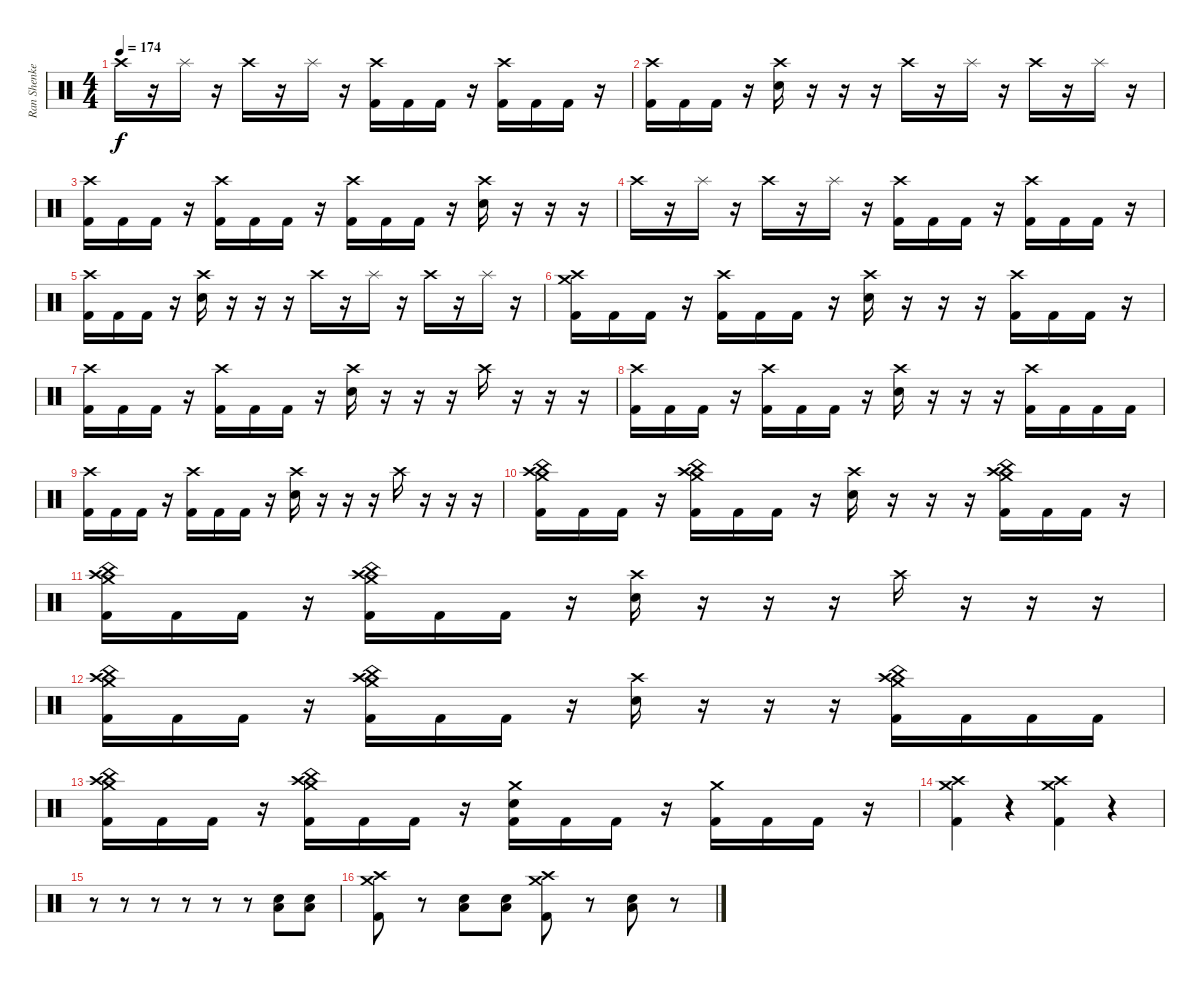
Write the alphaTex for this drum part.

\track ("Ran Shenkerman" "Ran Shenke") {instrument percussion}
\staff {score}
\articulation defaults
\ts (4 4)
\tempo 174
\clef neutral
\ks c "Crash high (hit)".16{dy f}
r.16 "Splash (hit)".16 r.16 "Crash high (hit)".16 r.16 "Splash (hit)".16 r.16 ("Crash high (hit)" "Kick (hit) 2").16 "Kick (hit) 2".16 "Kick (hit) 2".16 r.16 ("Crash high (hit)" "Kick (hit) 2").16 "Kick (hit) 2".16 "Kick (hit) 2".16 r.16 |
("Crash high (hit)" "Kick (hit) 2").16 "Kick (hit) 2".16 "Kick (hit) 2".16 r.16 ("Crash high (hit)" "Snare (hit) 2").16 r.16 r.16 r.16 "Crash high (hit)".16 r.16 "Splash (hit)".16 r.16 "Crash high (hit)".16 r.16 "Splash (hit)".16 r.16 |
("Crash high (hit)" "Kick (hit) 2").16 "Kick (hit) 2".16 "Kick (hit) 2".16 r.16 ("Crash high (hit)" "Kick (hit) 2").16 "Kick (hit) 2".16 "Kick (hit) 2".16 r.16 ("Crash high (hit)" "Kick (hit) 2").16 "Kick (hit) 2".16 "Kick (hit) 2".16 r.16 ("Crash high (hit)" "Snare (hit) 2").16 r.16 r.16 r.16 |
"Crash high (hit)".16 r.16 "Splash (hit)".16 r.16 "Crash high (hit)".16 r.16 "Splash (hit)".16 r.16 ("Crash high (hit)" "Kick (hit) 2").16 "Kick (hit) 2".16 "Kick (hit) 2".16 r.16 ("Crash high (hit)" "Kick (hit) 2").16 "Kick (hit) 2".16 "Kick (hit) 2".16 r.16 |
("Crash high (hit)" "Kick (hit) 2").16 "Kick (hit) 2".16 "Kick (hit) 2".16 r.16 ("Crash high (hit)" "Snare (hit) 2").16 r.16 r.16 r.16 "Crash high (hit)".16 r.16 "Splash (hit)".16 r.16 "Crash high (hit)".16 r.16 "Splash (hit)".16 r.16 |
("Crash high (hit)" "Crash medium (hit)" "Kick (hit) 2").16 "Kick (hit) 2".16 "Kick (hit) 2".16 r.16 ("Crash high (hit)" "Kick (hit) 2").16 "Kick (hit) 2".16 "Kick (hit) 2".16 r.16 ("Crash high (hit)" "Snare (hit) 2").16 r.16 r.16 r.16 ("Crash high (hit)" "Kick (hit) 2").16 "Kick (hit) 2".16 "Kick (hit) 2".16 r.16 |
("Crash high (hit)" "Kick (hit) 2").16 "Kick (hit) 2".16 "Kick (hit) 2".16 r.16 ("Crash high (hit)" "Kick (hit) 2").16 "Kick (hit) 2".16 "Kick (hit) 2".16 r.16 ("Crash high (hit)" "Snare (hit) 2").16 r.16 r.16 r.16 "Crash high (hit)".16 r.16 r.16 r.16 |
("Crash high (hit)" "Kick (hit) 2").16 "Kick (hit) 2".16 "Kick (hit) 2".16 r.16 ("Crash high (hit)" "Kick (hit) 2").16 "Kick (hit) 2".16 "Kick (hit) 2".16 r.16 ("Crash high (hit)" "Snare (hit) 2").16 r.16 r.16 r.16 ("Crash high (hit)" "Kick (hit) 2").16 "Kick (hit) 2".16 "Kick (hit) 2".16 "Kick (hit) 2".16 |
("Crash high (hit)" "Kick (hit) 2").16 "Kick (hit) 2".16 "Kick (hit) 2".16 r.16 ("Crash high (hit)" "Kick (hit) 2").16 "Kick (hit) 2".16 "Kick (hit) 2".16 r.16 ("Crash high (hit)" "Snare (hit) 2").16 r.16 r.16 r.16 "Crash high (hit)".16 r.16 r.16 r.16 |
("Crash high (hit)" "Crash medium (hit)" "China (hit)" "Kick (hit) 2").16 "Kick (hit) 2".16 "Kick (hit) 2".16 r.16 ("Crash high (hit)" "Crash medium (hit)" "China (hit)" "Kick (hit) 2").16 "Kick (hit) 2".16 "Kick (hit) 2".16 r.16 ("Crash high (hit)" "Snare (hit) 2").16 r.16 r.16 r.16 ("Crash high (hit)" "Crash medium (hit)" "China (hit)" "Kick (hit) 2").16 "Kick (hit) 2".16 "Kick (hit) 2".16 r.16 |
("Crash high (hit)" "Crash medium (hit)" "China (hit)" "Kick (hit) 2").16 "Kick (hit) 2".16 "Kick (hit) 2".16 r.16 ("Crash high (hit)" "Crash medium (hit)" "China (hit)" "Kick (hit) 2").16 "Kick (hit) 2".16 "Kick (hit) 2".16 r.16 ("Crash high (hit)" "Snare (hit) 2").16 r.16 r.16 r.16 "Crash high (hit)".16 r.16 r.16 r.16 |
("Crash high (hit)" "Crash medium (hit)" "China (hit)" "Kick (hit) 2").16 "Kick (hit) 2".16 "Kick (hit) 2".16 r.16 ("Crash high (hit)" "Crash medium (hit)" "China (hit)" "Kick (hit) 2").16 "Kick (hit) 2".16 "Kick (hit) 2".16 r.16 ("Crash high (hit)" "Snare (hit) 2").16 r.16 r.16 r.16 ("Crash high (hit)" "Crash medium (hit)" "China (hit)" "Kick (hit) 2").16 "Kick (hit) 2".16 "Kick (hit) 2".16 "Kick (hit) 2".16 |
("Crash high (hit)" "Crash medium (hit)" "China (hit)" "Kick (hit) 2").16 "Kick (hit) 2".16 "Kick (hit) 2".16 r.16 ("Crash high (hit)" "Crash medium (hit)" "China (hit)" "Kick (hit) 2").16 "Kick (hit) 2".16 "Kick (hit) 2".16 r.16 ("Crash medium (hit)" "Snare (hit) 2" "Kick (hit) 2").16 "Kick (hit) 2".16 "Kick (hit) 2".16 r.16 ("Crash medium (hit)" "Kick (hit) 2").16 "Kick (hit) 2".16 "Kick (hit) 2".16 r.16 |
("Crash high (hit)" "Crash medium (hit)" "Kick (hit) 2").4 r.4 ("Crash high (hit)" "Crash medium (hit)" "Kick (hit) 2").4 r.4 |
r.8 r.8 r.8 r.8 r.8 r.8 ("Snare (hit) 2" "Low Floor Tom (hit)").8 ("Snare (hit) 2" "Low Floor Tom (hit)").8 |
("Crash high (hit)" "Crash medium (hit)" "Kick (hit) 2").8 r.8 ("Snare (hit) 2" "Low Floor Tom (hit)").8 ("Snare (hit) 2" "Low Floor Tom (hit)").8 ("Crash high (hit)" "Crash medium (hit)" "Kick (hit) 2").8 r.8 ("Snare (hit) 2" "Low Floor Tom (hit)").8 r.8
